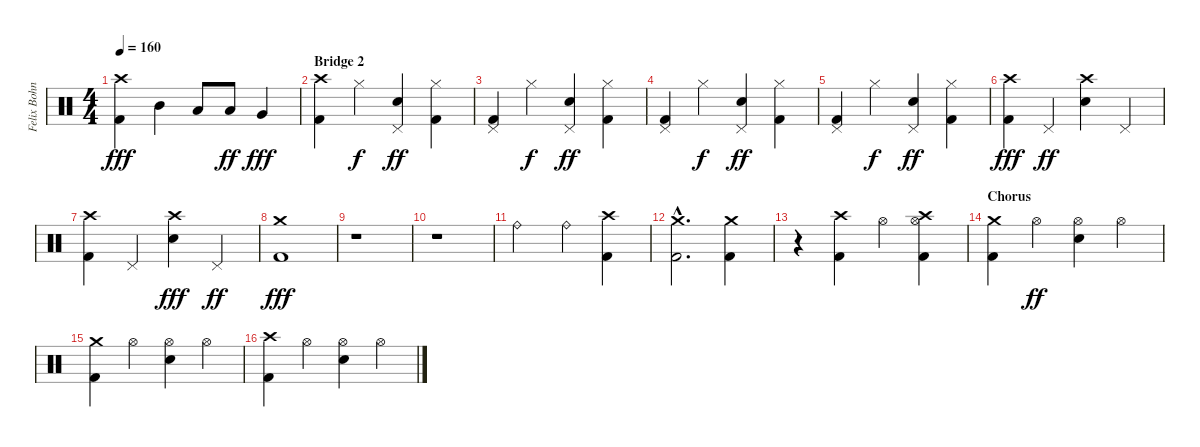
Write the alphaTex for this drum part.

\track ("Felix Bohnke" "Felix Bohn") {instrument percussion}
\staff {score}
\articulation defaults
\ts (4 4)
\tempo 160
\clef neutral
\ks c
("Kick (hit) 2" "Crash high (hit)").4{dy fff} "Mid Tom (hit)".4 "Low Tom (hit)".8 "Low Tom (hit)".8{dy ff} "Very Low Tom (hit)".4{dy fff} |
\section ("" "Bridge 2")
("Kick (hit) 2" "Crash high (hit)").4 "Hi-Hat (closed)".4{dy f} ("Snare (hit) 2" "Pedal Hi-Hat (hit)").4{dy ff} ("Kick (hit) 2" "Hi-Hat (closed)").4 |
("Kick (hit) 2" "Pedal Hi-Hat (hit)").4 "Hi-Hat (closed)".4{dy f} ("Snare (hit) 2" "Pedal Hi-Hat (hit)").4{dy ff} ("Kick (hit) 2" "Hi-Hat (closed)").4 |
("Kick (hit) 2" "Pedal Hi-Hat (hit)").4 "Hi-Hat (closed)".4{dy f} ("Snare (hit) 2" "Pedal Hi-Hat (hit)").4{dy ff} ("Kick (hit) 2" "Hi-Hat (closed)").4 |
("Kick (hit) 2" "Pedal Hi-Hat (hit)").4 "Hi-Hat (closed)".4{dy f} ("Snare (hit) 2" "Pedal Hi-Hat (hit)").4{dy ff} ("Kick (hit) 2" "Hi-Hat (closed)").4 |
("Kick (hit) 2" "Crash high (hit)").4{dy fff} "Pedal Hi-Hat (hit)".4{dy ff} ("Snare (hit) 2" "Crash high (hit)").4 "Pedal Hi-Hat (hit)".4 |
("Kick (hit) 2" "Crash high (hit)").4 "Pedal Hi-Hat (hit)".4 ("Snare (hit) 2" "Crash high (hit)").4{dy fff} "Pedal Hi-Hat (hit)".4{dy ff} |
("Kick (hit) 2" "Crash medium (hit)").1{dy fff} |
r.1 |
r.1 |
"Ride (bell)".2 "Ride (bell)".4 ("Kick (hit) 2" "Crash high (hit)").4 |
("Crash medium (hit)"{hac} "Kick (hit) 2"{hac}).2{d} ("Crash medium (hit)" "Kick (hit) 2").4 |
r.4 ("Kick (hit) 2" "Crash high (hit)").4 "Hi-Hat (open)".4 ("Hi-Hat (open)" "Crash high (hit)" "Kick (hit) 2").4 |
\section ("" "Chorus")
("Kick (hit) 2" "Crash medium (hit)").4 "Hi-Hat (open)".4{dy ff} ("Snare (hit) 2" "Hi-Hat (open)").4 "Hi-Hat (open)".4 |
("Kick (hit) 2" "Crash medium (hit)").4 "Hi-Hat (open)".4 ("Snare (hit) 2" "Hi-Hat (open)").4 "Hi-Hat (open)".4 |
("Kick (hit) 2" "Crash high (hit)").4 "Hi-Hat (open)".4 ("Snare (hit) 2" "Hi-Hat (open)").4 "Hi-Hat (open)".4
